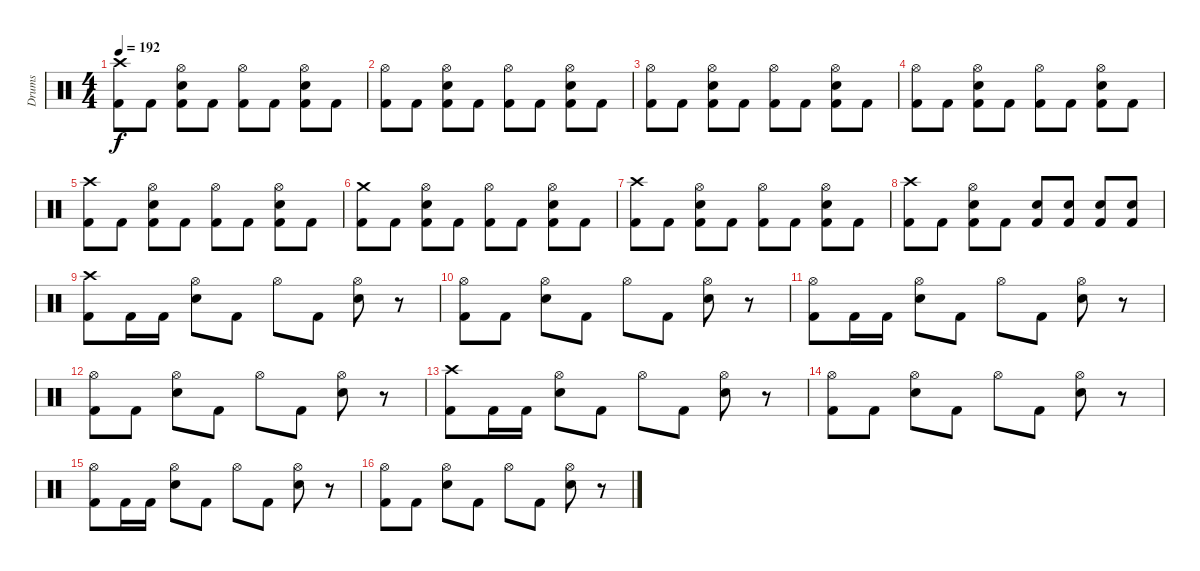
\track ("Drums" "Drums") {instrument percussion}
\staff {score}
\articulation defaults
\ts (4 4)
\tempo 192
\clef neutral
\ks c
("Kick (hit) 2" "Crash high (hit)").8{dy f} "Kick (hit) 2".8 ("Kick (hit) 2" "Snare (hit) 2" "Hi-Hat (open)").8 "Kick (hit) 2".8 ("Kick (hit) 2" "Hi-Hat (open)").8 "Kick (hit) 2".8 ("Kick (hit) 2" "Snare (hit) 2" "Hi-Hat (open)").8 "Kick (hit) 2".8 |
("Kick (hit) 2" "Hi-Hat (open)").8 "Kick (hit) 2".8 ("Kick (hit) 2" "Snare (hit) 2" "Hi-Hat (open)").8 "Kick (hit) 2".8 ("Kick (hit) 2" "Hi-Hat (open)").8 "Kick (hit) 2".8 ("Kick (hit) 2" "Snare (hit) 2" "Hi-Hat (open)").8 "Kick (hit) 2".8 |
("Kick (hit) 2" "Hi-Hat (open)").8 "Kick (hit) 2".8 ("Kick (hit) 2" "Snare (hit) 2" "Hi-Hat (open)").8 "Kick (hit) 2".8 ("Kick (hit) 2" "Hi-Hat (open)").8 "Kick (hit) 2".8 ("Kick (hit) 2" "Snare (hit) 2" "Hi-Hat (open)").8 "Kick (hit) 2".8 |
("Kick (hit) 2" "Hi-Hat (open)").8 "Kick (hit) 2".8 ("Kick (hit) 2" "Snare (hit) 2" "Hi-Hat (open)").8 "Kick (hit) 2".8 ("Kick (hit) 2" "Hi-Hat (open)").8 "Kick (hit) 2".8 ("Kick (hit) 2" "Snare (hit) 2" "Hi-Hat (open)").8 "Kick (hit) 2".8 |
("Kick (hit) 2" "Crash high (hit)").8 "Kick (hit) 2".8 ("Kick (hit) 2" "Snare (hit) 2" "Hi-Hat (open)").8 "Kick (hit) 2".8 ("Kick (hit) 2" "Hi-Hat (open)").8 "Kick (hit) 2".8 ("Kick (hit) 2" "Snare (hit) 2" "Hi-Hat (open)").8 "Kick (hit) 2".8 |
("Kick (hit) 2" "Crash medium (hit)").8 "Kick (hit) 2".8 ("Kick (hit) 2" "Snare (hit) 2" "Hi-Hat (open)").8 "Kick (hit) 2".8 ("Kick (hit) 2" "Hi-Hat (open)").8 "Kick (hit) 2".8 ("Kick (hit) 2" "Snare (hit) 2" "Hi-Hat (open)").8 "Kick (hit) 2".8 |
("Kick (hit) 2" "Crash high (hit)").8 "Kick (hit) 2".8 ("Kick (hit) 2" "Snare (hit) 2" "Hi-Hat (open)").8 "Kick (hit) 2".8 ("Kick (hit) 2" "Hi-Hat (open)").8 "Kick (hit) 2".8 ("Kick (hit) 2" "Snare (hit) 2" "Hi-Hat (open)").8 "Kick (hit) 2".8 |
("Kick (hit) 2" "Crash high (hit)").8 "Kick (hit) 2".8 ("Kick (hit) 2" "Snare (hit) 2" "Hi-Hat (open)").8 "Kick (hit) 2".8 ("Kick (hit) 2" "Snare (hit) 2").8 ("Kick (hit) 2" "Snare (hit) 2").8 ("Kick (hit) 2" "Snare (hit) 2").8 ("Kick (hit) 2" "Snare (hit) 2").8 |
("Kick (hit) 2" "Crash high (hit)").8 "Kick (hit) 2".16 "Kick (hit) 2".16 ("Snare (hit) 2" "Hi-Hat (open)").8 "Kick (hit) 2".8 "Hi-Hat (open)".8 "Kick (hit) 2".8 ("Snare (hit) 2" "Hi-Hat (open)").8 r.8 |
("Kick (hit) 2" "Hi-Hat (open)").8 "Kick (hit) 2".8 ("Snare (hit) 2" "Hi-Hat (open)").8 "Kick (hit) 2".8 "Hi-Hat (open)".8 "Kick (hit) 2".8 ("Snare (hit) 2" "Hi-Hat (open)").8 r.8 |
("Kick (hit) 2" "Hi-Hat (open)").8 "Kick (hit) 2".16 "Kick (hit) 2".16 ("Snare (hit) 2" "Hi-Hat (open)").8 "Kick (hit) 2".8 "Hi-Hat (open)".8 "Kick (hit) 2".8 ("Snare (hit) 2" "Hi-Hat (open)").8 r.8 |
("Kick (hit) 2" "Hi-Hat (open)").8 "Kick (hit) 2".8 ("Snare (hit) 2" "Hi-Hat (open)").8 "Kick (hit) 2".8 "Hi-Hat (open)".8 "Kick (hit) 2".8 ("Snare (hit) 2" "Hi-Hat (open)").8 r.8 |
("Kick (hit) 2" "Crash high (hit)").8 "Kick (hit) 2".16 "Kick (hit) 2".16 ("Snare (hit) 2" "Hi-Hat (open)").8 "Kick (hit) 2".8 "Hi-Hat (open)".8 "Kick (hit) 2".8 ("Snare (hit) 2" "Hi-Hat (open)").8 r.8 |
("Kick (hit) 2" "Hi-Hat (open)").8 "Kick (hit) 2".8 ("Snare (hit) 2" "Hi-Hat (open)").8 "Kick (hit) 2".8 "Hi-Hat (open)".8 "Kick (hit) 2".8 ("Snare (hit) 2" "Hi-Hat (open)").8 r.8 |
("Kick (hit) 2" "Hi-Hat (open)").8 "Kick (hit) 2".16 "Kick (hit) 2".16 ("Snare (hit) 2" "Hi-Hat (open)").8 "Kick (hit) 2".8 "Hi-Hat (open)".8 "Kick (hit) 2".8 ("Snare (hit) 2" "Hi-Hat (open)").8 r.8 |
("Kick (hit) 2" "Hi-Hat (open)").8 "Kick (hit) 2".8 ("Snare (hit) 2" "Hi-Hat (open)").8 "Kick (hit) 2".8 "Hi-Hat (open)".8 "Kick (hit) 2".8 ("Snare (hit) 2" "Hi-Hat (open)").8 r.8
